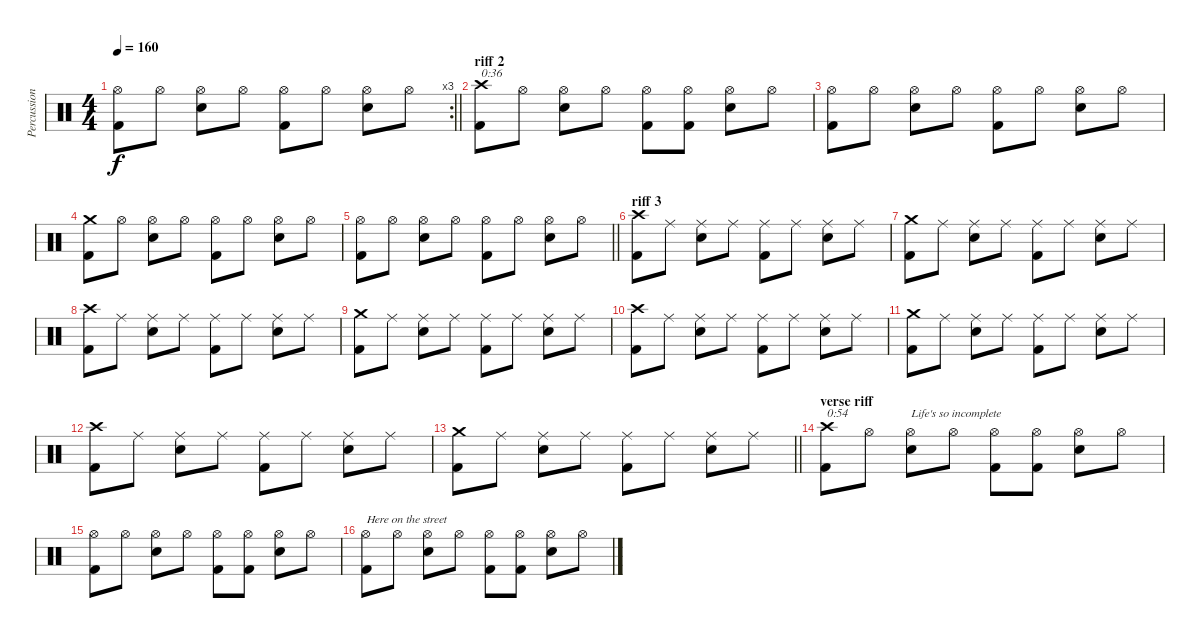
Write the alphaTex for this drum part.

\track ("Percussion 2 var" "Percussion") {mute instrument percussion}
\staff {score}
\articulation defaults
\rc 3
\ts (4 4)
\tempo 160
\clef neutral
\barLineRight lightlight
\ks c
("Hi-Hat (open)" "Kick (hit) 2").8{dy f} "Hi-Hat (open)".8 ("Hi-Hat (open)" "Snare (hit) 2").8 "Hi-Hat (open)".8 ("Hi-Hat (open)" "Kick (hit) 2").8 "Hi-Hat (open)".8 ("Hi-Hat (open)" "Snare (hit) 2").8 "Hi-Hat (open)".8 |
\section ("" "riff 2")
("Crash high (hit)" "Kick (hit) 2").8{txt "0:36"} "Hi-Hat (open)".8 ("Hi-Hat (open)" "Snare (hit) 2").8 "Hi-Hat (open)".8 ("Hi-Hat (open)" "Kick (hit) 2").8 ("Hi-Hat (open)" "Kick (hit) 2").8 ("Hi-Hat (open)" "Snare (hit) 2").8 "Hi-Hat (open)".8 |
("Hi-Hat (open)" "Kick (hit) 2").8 "Hi-Hat (open)".8 ("Hi-Hat (open)" "Snare (hit) 2").8 "Hi-Hat (open)".8 ("Hi-Hat (open)" "Kick (hit) 2").8 "Hi-Hat (open)".8 ("Hi-Hat (open)" "Snare (hit) 2").8 "Hi-Hat (open)".8 |
("Crash medium (hit)" "Kick (hit) 2").8 "Hi-Hat (open)".8 ("Hi-Hat (open)" "Snare (hit) 2").8 "Hi-Hat (open)".8 ("Hi-Hat (open)" "Kick (hit) 2").8 "Hi-Hat (open)".8 ("Hi-Hat (open)" "Snare (hit) 2").8 "Hi-Hat (open)".8 |
\barLineRight lightlight
("Hi-Hat (open)" "Kick (hit) 2").8 "Hi-Hat (open)".8 ("Hi-Hat (open)" "Snare (hit) 2").8 "Hi-Hat (open)".8 ("Hi-Hat (open)" "Kick (hit) 2").8 "Hi-Hat (open)".8 ("Hi-Hat (open)" "Snare (hit) 2").8 "Hi-Hat (open)".8 |
\section ("" "riff 3")
("Crash high (hit)" "Kick (hit) 2").8 "Ride (middle)".8 ("Ride (middle)" "Snare (hit) 2").8 "Ride (middle)".8 ("Ride (middle)" "Kick (hit) 2").8 "Ride (middle)".8 ("Ride (middle)" "Snare (hit) 2").8 "Ride (middle)".8 |
("Crash medium (hit)" "Kick (hit) 2").8 "Ride (middle)".8 ("Ride (middle)" "Snare (hit) 2").8 "Ride (middle)".8 ("Ride (middle)" "Kick (hit) 2").8 "Ride (middle)".8 ("Ride (middle)" "Snare (hit) 2").8 "Ride (middle)".8 |
("Crash high (hit)" "Kick (hit) 2").8 "Ride (middle)".8 ("Ride (middle)" "Snare (hit) 2").8 "Ride (middle)".8 ("Ride (middle)" "Kick (hit) 2").8 "Ride (middle)".8 ("Ride (middle)" "Snare (hit) 2").8 "Ride (middle)".8 |
("Crash medium (hit)" "Kick (hit) 2").8 "Ride (middle)".8 ("Ride (middle)" "Snare (hit) 2").8 "Ride (middle)".8 ("Ride (middle)" "Kick (hit) 2").8 "Ride (middle)".8 ("Ride (middle)" "Snare (hit) 2").8 "Ride (middle)".8 |
("Crash high (hit)" "Kick (hit) 2").8 "Ride (middle)".8 ("Ride (middle)" "Snare (hit) 2").8 "Ride (middle)".8 ("Ride (middle)" "Kick (hit) 2").8 "Ride (middle)".8 ("Ride (middle)" "Snare (hit) 2").8 "Ride (middle)".8 |
("Crash medium (hit)" "Kick (hit) 2").8 "Ride (middle)".8 ("Ride (middle)" "Snare (hit) 2").8 "Ride (middle)".8 ("Ride (middle)" "Kick (hit) 2").8 "Ride (middle)".8 ("Ride (middle)" "Snare (hit) 2").8 "Ride (middle)".8 |
("Crash high (hit)" "Kick (hit) 2").8 "Ride (middle)".8 ("Ride (middle)" "Snare (hit) 2").8 "Ride (middle)".8 ("Ride (middle)" "Kick (hit) 2").8 "Ride (middle)".8 ("Ride (middle)" "Snare (hit) 2").8 "Ride (middle)".8 |
\barLineRight lightlight
("Crash medium (hit)" "Kick (hit) 2").8 "Ride (middle)".8 ("Ride (middle)" "Snare (hit) 2").8 "Ride (middle)".8 ("Ride (middle)" "Kick (hit) 2").8 "Ride (middle)".8 ("Ride (middle)" "Snare (hit) 2").8 "Ride (middle)".8 |
\section ("" "verse riff")
("Crash high (hit)" "Kick (hit) 2").8{txt "0:54"} "Hi-Hat (open)".8 ("Hi-Hat (open)" "Snare (hit) 2").8{txt "Life's so incomplete"} "Hi-Hat (open)".8 ("Hi-Hat (open)" "Kick (hit) 2").8 ("Hi-Hat (open)" "Kick (hit) 2").8 ("Hi-Hat (open)" "Snare (hit) 2").8 "Hi-Hat (open)".8 |
("Hi-Hat (open)" "Kick (hit) 2").8 "Hi-Hat (open)".8 ("Hi-Hat (open)" "Snare (hit) 2").8 "Hi-Hat (open)".8 ("Hi-Hat (open)" "Kick (hit) 2").8 ("Hi-Hat (open)" "Kick (hit) 2").8 ("Hi-Hat (open)" "Snare (hit) 2").8 "Hi-Hat (open)".8 |
("Hi-Hat (open)" "Kick (hit) 2").8{txt "Here on the street"} "Hi-Hat (open)".8 ("Hi-Hat (open)" "Snare (hit) 2").8 "Hi-Hat (open)".8 ("Hi-Hat (open)" "Kick (hit) 2").8 ("Hi-Hat (open)" "Kick (hit) 2").8 ("Hi-Hat (open)" "Snare (hit) 2").8 "Hi-Hat (open)".8
